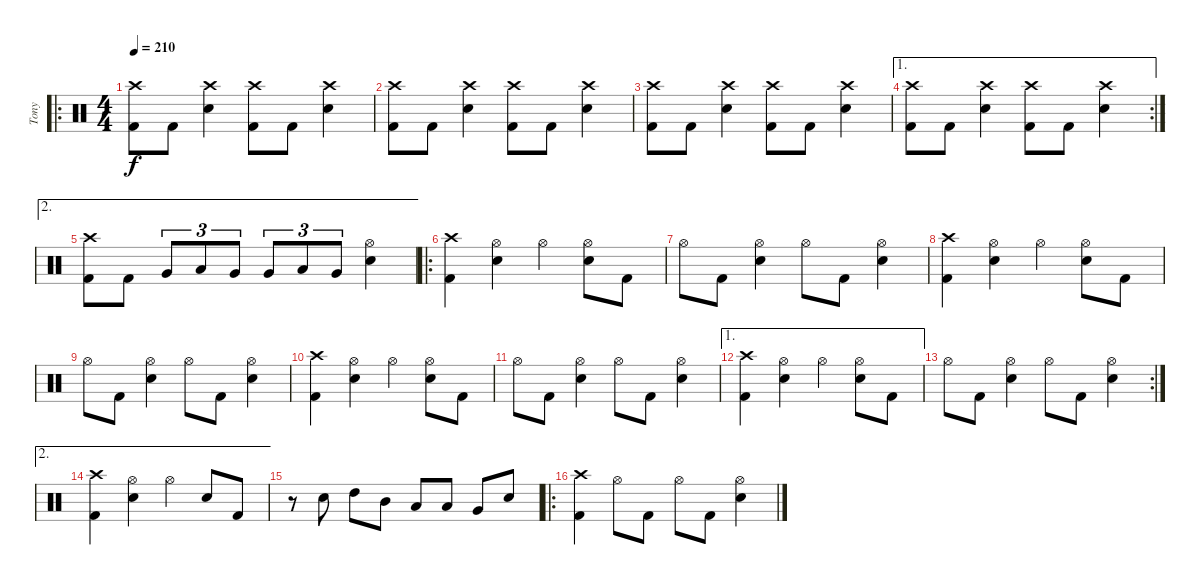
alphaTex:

\track ("Tony" "Tony") {instrument percussion}
\staff {score}
\articulation defaults
\ro
\ts (4 4)
\tempo 210
\clef neutral
\ks c
("Kick (hit) 2" "Crash high (hit)").8{dy f} "Kick (hit) 2".8 ("Crash high (hit)" "Snare (hit) 2").4 ("Kick (hit) 2" "Crash high (hit)").8 "Kick (hit) 2".8 ("Crash high (hit)" "Snare (hit) 2").4 |
("Kick (hit) 2" "Crash high (hit)").8 "Kick (hit) 2".8 ("Crash high (hit)" "Snare (hit) 2").4 ("Kick (hit) 2" "Crash high (hit)").8 "Kick (hit) 2".8 ("Crash high (hit)" "Snare (hit) 2").4 |
("Kick (hit) 2" "Crash high (hit)").8 "Kick (hit) 2".8 ("Crash high (hit)" "Snare (hit) 2").4 ("Kick (hit) 2" "Crash high (hit)").8 "Kick (hit) 2".8 ("Crash high (hit)" "Snare (hit) 2").4 |
\ae 1
\rc 2
("Kick (hit) 2" "Crash high (hit)").8 "Kick (hit) 2".8 ("Crash high (hit)" "Snare (hit) 2").4 ("Kick (hit) 2" "Crash high (hit)").8 "Kick (hit) 2".8 ("Crash high (hit)" "Snare (hit) 2").4 |
\ae 2
("Kick (hit) 2" "Crash high (hit)").8 "Kick (hit) 2".8 "Very Low Tom (hit)".8{tu (3 2)} "Low Tom (hit)".8{tu (3 2)} "Very Low Tom (hit)".8{tu (3 2)} "Very Low Tom (hit)".8{tu (3 2)} "Low Tom (hit)".8{tu (3 2)} "Very Low Tom (hit)".8{tu (3 2)} ("Snare (hit) 2" "Hi-Hat (open)").4 |
\ro
("Kick (hit) 2" "Crash high (hit)").4 ("Snare (hit) 2" "Hi-Hat (open)").4 "Hi-Hat (open)".4 ("Snare (hit) 2" "Hi-Hat (open)").8 "Kick (hit) 2".8 |
"Hi-Hat (open)".8 "Kick (hit) 2".8 ("Snare (hit) 2" "Hi-Hat (open)").4 "Hi-Hat (open)".8 "Kick (hit) 2".8 ("Snare (hit) 2" "Hi-Hat (open)").4 |
("Kick (hit) 2" "Crash high (hit)").4 ("Snare (hit) 2" "Hi-Hat (open)").4 "Hi-Hat (open)".4 ("Snare (hit) 2" "Hi-Hat (open)").8 "Kick (hit) 2".8 |
"Hi-Hat (open)".8 "Kick (hit) 2".8 ("Snare (hit) 2" "Hi-Hat (open)").4 "Hi-Hat (open)".8 "Kick (hit) 2".8 ("Snare (hit) 2" "Hi-Hat (open)").4 |
("Kick (hit) 2" "Crash high (hit)").4 ("Snare (hit) 2" "Hi-Hat (open)").4 "Hi-Hat (open)".4 ("Snare (hit) 2" "Hi-Hat (open)").8 "Kick (hit) 2".8 |
"Hi-Hat (open)".8 "Kick (hit) 2".8 ("Snare (hit) 2" "Hi-Hat (open)").4 "Hi-Hat (open)".8 "Kick (hit) 2".8 ("Snare (hit) 2" "Hi-Hat (open)").4 |
\ae 1
("Kick (hit) 2" "Crash high (hit)").4 ("Snare (hit) 2" "Hi-Hat (open)").4 "Hi-Hat (open)".4 ("Snare (hit) 2" "Hi-Hat (open)").8 "Kick (hit) 2".8 |
\rc 2 "Hi-Hat (open)".8 "Kick (hit) 2".8
("Snare (hit) 2" "Hi-Hat (open)").4 "Hi-Hat (open)".8 "Kick (hit) 2".8 ("Snare (hit) 2" "Hi-Hat (open)").4 |
\ae 2
("Kick (hit) 2" "Crash high (hit)").4 ("Snare (hit) 2" "Hi-Hat (open)").4 "Hi-Hat (open)".4 "Snare (hit) 2".8 "Kick (hit) 2".8 |
r.8 "Snare (hit) 2".8 "High Tom (hit)".8 "Mid Tom (hit)".8 "Low Tom (hit)".8 "Low Tom (hit)".8 "Very Low Tom (hit)".8 "Snare (hit) 2".8 |
\ro
("Kick (hit) 2" "Crash high (hit)").4 "Hi-Hat (open)".8 "Kick (hit) 2".8 "Hi-Hat (open)".8 "Kick (hit) 2".8 ("Snare (hit) 2" "Hi-Hat (open)").4
